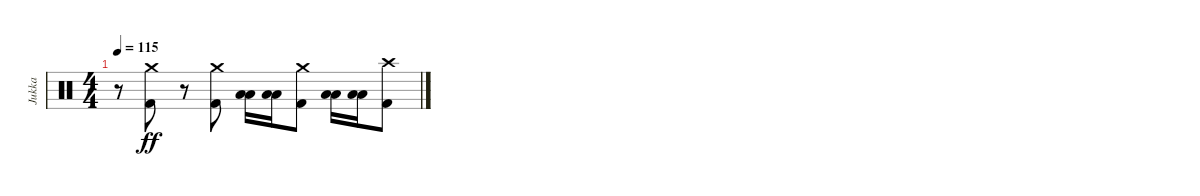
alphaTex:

\track ("Jukka" "Jukka") {instrument percussion}
\staff {score}
\articulation defaults
\ts (4 4)
\tempo 115
\clef neutral
\ks c
r.8{dy ff} ("Crash medium (hit)" "Kick (hit) 2").8 r.8 ("Crash medium (hit)" "Kick (hit) 2").8 ("Low Tom (hit)" "Low Floor Tom (hit)").16 ("Low Tom (hit)" "Low Floor Tom (hit)").16 ("Crash medium (hit)" "Kick (hit) 2").8 ("Low Tom (hit)" "Low Floor Tom (hit)").16 ("Low Tom (hit)" "Low Floor Tom (hit)").16 ("Crash high (hit)" "Kick (hit) 2").8
